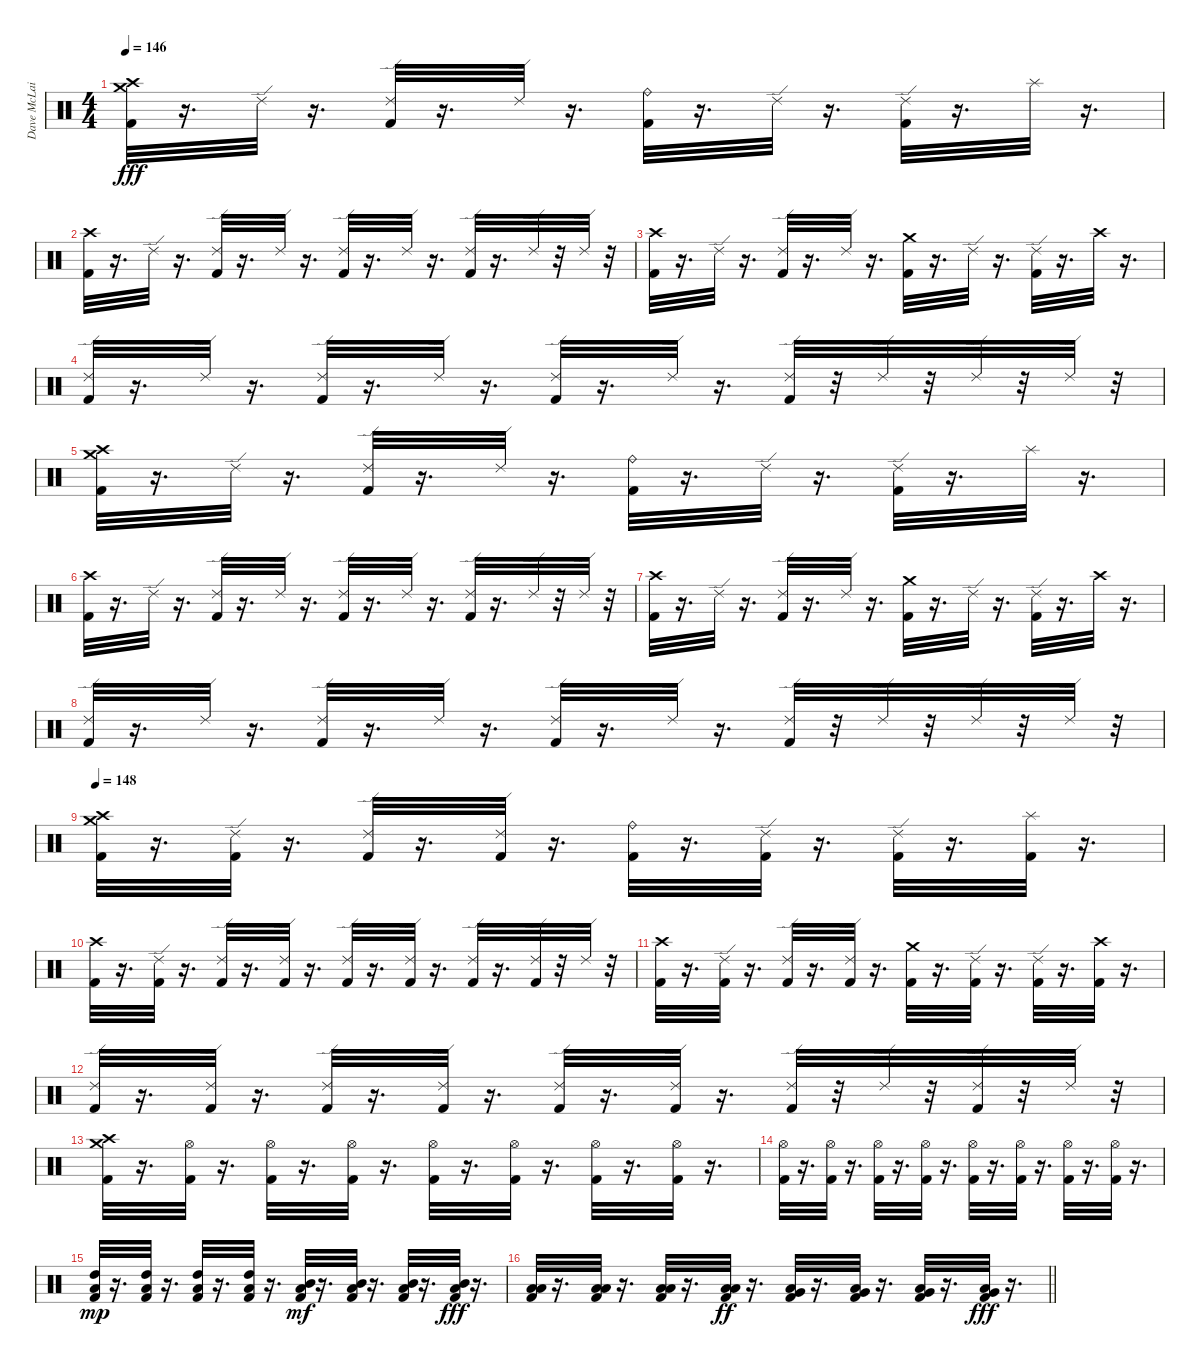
\track ("Dave McLain" "Dave McLai") {instrument percussion}
\staff {score}
\articulation defaults
\ts (4 4)
\tempo 146
\clef neutral
\ks c
("Crash medium (hit)" "Crash high (hit)" "Kick (hit) 2").32{dy fff} r.16{d} "Ride (edge) 2".32 r.16{d} ("Kick (hit) 2" "Ride (edge) 2").32 r.16{d} "Ride (edge) 2".32 r.16{d} ("Ride (bell)" "Kick (hit) 2").32 r.16{d} "Ride (edge) 2".32 r.16{d} ("Kick (hit) 2" "Ride (edge) 2").32 r.16{d} "Splash (hit)".32 r.16{d} |
("Crash high (hit)" "Kick (hit) 2").32 r.16{d} "Ride (edge) 2".32 r.16{d} ("Kick (hit) 2" "Ride (edge) 2").32 r.16{d} "Ride (edge) 2".32 r.16{d} ("Kick (hit) 2" "Ride (edge) 2").32 r.16{d} "Ride (edge) 2".32 r.16{d} ("Kick (hit) 2" "Ride (edge) 2").32 r.16{d} "Ride (edge) 2".32 r.32 "Ride (edge) 2".32 r.32 |
("Crash high (hit)" "Kick (hit) 2").32 r.16{d} "Ride (edge) 2".32 r.16{d} ("Kick (hit) 2" "Ride (edge) 2").32 r.16{d} "Ride (edge) 2".32 r.16{d} ("Crash medium (hit)" "Kick (hit) 2").32 r.16{d} "Ride (edge) 2".32 r.16{d} ("Kick (hit) 2" "Ride (edge) 2").32 r.16{d} "Crash high (hit)".32 r.16{d} |
("Ride (edge) 2" "Kick (hit) 2").32 r.16{d} "Ride (edge) 2".32 r.16{d} ("Kick (hit) 2" "Ride (edge) 2").32 r.16{d} "Ride (edge) 2".32 r.16{d} ("Kick (hit) 2" "Ride (edge) 2").32 r.16{d} "Ride (edge) 2".32 r.16{d} ("Kick (hit) 2" "Ride (edge) 2").32 r.32 "Ride (edge) 2".32 r.32 "Ride (edge) 2".32 r.32 "Ride (edge) 2".32 r.32 |
("Crash medium (hit)" "Crash high (hit)" "Kick (hit) 2").32 r.16{d} "Ride (edge) 2".32 r.16{d} ("Kick (hit) 2" "Ride (edge) 2").32 r.16{d} "Ride (edge) 2".32 r.16{d} ("Ride (bell)" "Kick (hit) 2").32 r.16{d} "Ride (edge) 2".32 r.16{d} ("Kick (hit) 2" "Ride (edge) 2").32 r.16{d} "Splash (hit)".32 r.16{d} |
("Crash high (hit)" "Kick (hit) 2").32 r.16{d} "Ride (edge) 2".32 r.16{d} ("Kick (hit) 2" "Ride (edge) 2").32 r.16{d} "Ride (edge) 2".32 r.16{d} ("Kick (hit) 2" "Ride (edge) 2").32 r.16{d} "Ride (edge) 2".32 r.16{d} ("Kick (hit) 2" "Ride (edge) 2").32 r.16{d} "Ride (edge) 2".32 r.32 "Ride (edge) 2".32 r.32 |
("Crash high (hit)" "Kick (hit) 2").32 r.16{d} "Ride (edge) 2".32 r.16{d} ("Kick (hit) 2" "Ride (edge) 2").32 r.16{d} "Ride (edge) 2".32 r.16{d} ("Crash medium (hit)" "Kick (hit) 2").32 r.16{d} "Ride (edge) 2".32 r.16{d} ("Kick (hit) 2" "Ride (edge) 2").32 r.16{d} "Crash high (hit)".32 r.16{d} |
("Ride (edge) 2" "Kick (hit) 2").32 r.16{d} "Ride (edge) 2".32 r.16{d} ("Kick (hit) 2" "Ride (edge) 2").32 r.16{d} "Ride (edge) 2".32 r.16{d} ("Kick (hit) 2" "Ride (edge) 2").32 r.16{d} "Ride (edge) 2".32 r.16{d} ("Kick (hit) 2" "Ride (edge) 2").32 r.32 "Ride (edge) 2".32 r.32 "Ride (edge) 2".32 r.32 "Ride (edge) 2".32 r.32 |
\tempo 148
("Crash medium (hit)" "Crash high (hit)" "Kick (hit) 2").32 r.16{d} ("Kick (hit) 2" "Ride (edge) 2").32 r.16{d} ("Kick (hit) 2" "Ride (edge) 2").32 r.16{d} ("Kick (hit) 2" "Ride (edge) 2").32 r.16{d} ("Ride (bell)" "Kick (hit) 2").32 r.16{d} ("Kick (hit) 2" "Ride (edge) 2").32 r.16{d} ("Kick (hit) 2" "Ride (edge) 2").32 r.16{d} ("Kick (hit) 2" "Splash (hit)").32 r.16{d} |
("Crash high (hit)" "Kick (hit) 2").32 r.16{d} ("Kick (hit) 2" "Ride (edge) 2").32 r.16{d} ("Kick (hit) 2" "Ride (edge) 2").32 r.16{d} ("Kick (hit) 2" "Ride (edge) 2").32 r.16{d} ("Kick (hit) 2" "Ride (edge) 2").32 r.16{d} ("Kick (hit) 2" "Ride (edge) 2").32 r.16{d} ("Kick (hit) 2" "Ride (edge) 2").32 r.16{d} ("Kick (hit) 2" "Ride (edge) 2").32 r.32 "Ride (edge) 2".32 r.32 |
("Crash high (hit)" "Kick (hit) 2").32 r.16{d} ("Kick (hit) 2" "Ride (edge) 2").32 r.16{d} ("Kick (hit) 2" "Ride (edge) 2").32 r.16{d} ("Kick (hit) 2" "Ride (edge) 2").32 r.16{d} ("Crash medium (hit)" "Kick (hit) 2").32 r.16{d} ("Kick (hit) 2" "Ride (edge) 2").32 r.16{d} ("Kick (hit) 2" "Ride (edge) 2").32 r.16{d} ("Kick (hit) 2" "Crash high (hit)").32 r.16{d} |
("Ride (edge) 2" "Kick (hit) 2").32 r.16{d} ("Kick (hit) 2" "Ride (edge) 2").32 r.16{d} ("Kick (hit) 2" "Ride (edge) 2").32 r.16{d} ("Kick (hit) 2" "Ride (edge) 2").32 r.16{d} ("Kick (hit) 2" "Ride (edge) 2").32 r.16{d} ("Kick (hit) 2" "Ride (edge) 2").32 r.16{d} ("Kick (hit) 2" "Ride (edge) 2").32 r.32 "Ride (edge) 2".32 r.32 ("Kick (hit) 2" "Ride (edge) 2").32 r.32 "Ride (edge) 2".32 r.32 |
("Crash medium (hit)" "Crash high (hit)" "Kick (hit) 2").32 r.16{d} ("Hi-Hat (open)" "Kick (hit) 2").32 r.16{d} ("Hi-Hat (open)" "Kick (hit) 2").32 r.16{d} ("Hi-Hat (open)" "Kick (hit) 2").32 r.16{d} ("Hi-Hat (open)" "Kick (hit) 2").32 r.16{d} ("Hi-Hat (open)" "Kick (hit) 2").32 r.16{d} ("Hi-Hat (open)" "Kick (hit) 2").32 r.16{d} ("Hi-Hat (open)" "Kick (hit) 2").32 r.16{d} |
("Hi-Hat (open)" "Kick (hit) 2").32 r.16{d} ("Hi-Hat (open)" "Kick (hit) 2").32 r.16{d} ("Hi-Hat (open)" "Kick (hit) 2").32 r.16{d} ("Hi-Hat (open)" "Kick (hit) 2").32 r.16{d} ("Hi-Hat (open)" "Kick (hit) 2").32 r.16{d} ("Hi-Hat (open)" "Kick (hit) 2").32 r.16{d} ("Hi-Hat (open)" "Kick (hit) 2").32 r.16{d} ("Hi-Hat (open)" "Kick (hit) 2").32 r.16{d} |
("Kick (hit) 2" "High Tom (hit)" "Low Floor Tom (hit)").32{dy mp} r.16{d} ("Kick (hit) 2" "High Tom (hit)" "Low Floor Tom (hit)").32 r.16{d} ("Kick (hit) 2" "High Tom (hit)" "Low Floor Tom (hit)").32 r.16{d} ("Kick (hit) 2" "High Tom (hit)" "Low Floor Tom (hit)").32 r.16{d} ("Kick (hit) 2" "Mid Tom (hit)" "Low Floor Tom (hit)").32{dy mf} r.16{d} ("Low Floor Tom (hit)" "Kick (hit) 2" "Mid Tom (hit)").32 r.16{d} ("Low Floor Tom (hit)" "Kick (hit) 2" "Mid Tom (hit)").32 r.16{d} ("Low Floor Tom (hit)" "Kick (hit) 2" "Mid Tom (hit)").32{dy fff} r.16{d} |
\barLineRight lightlight
("Low Floor Tom (hit)" "Kick (hit) 2" "Low Tom (hit)").32 r.16{d} ("Low Floor Tom (hit)" "Kick (hit) 2" "Low Tom (hit)").32 r.16{d} ("Low Floor Tom (hit)" "Kick (hit) 2" "Low Tom (hit)").32 r.16{d} ("Kick (hit) 2" "Low Tom (hit)" "Low Floor Tom (hit)").32{dy ff} r.16{d} ("Kick (hit) 2" "Very Low Tom (hit)" "Low Floor Tom (hit)").32 r.16{d} ("Kick (hit) 2" "Very Low Tom (hit)" "Low Floor Tom (hit)").32 r.16{d} ("Kick (hit) 2" "Very Low Tom (hit)" "Low Floor Tom (hit)").32 r.16{d} ("Kick (hit) 2" "Very Low Tom (hit)" "Low Floor Tom (hit)").32{dy fff} r.16{d}
